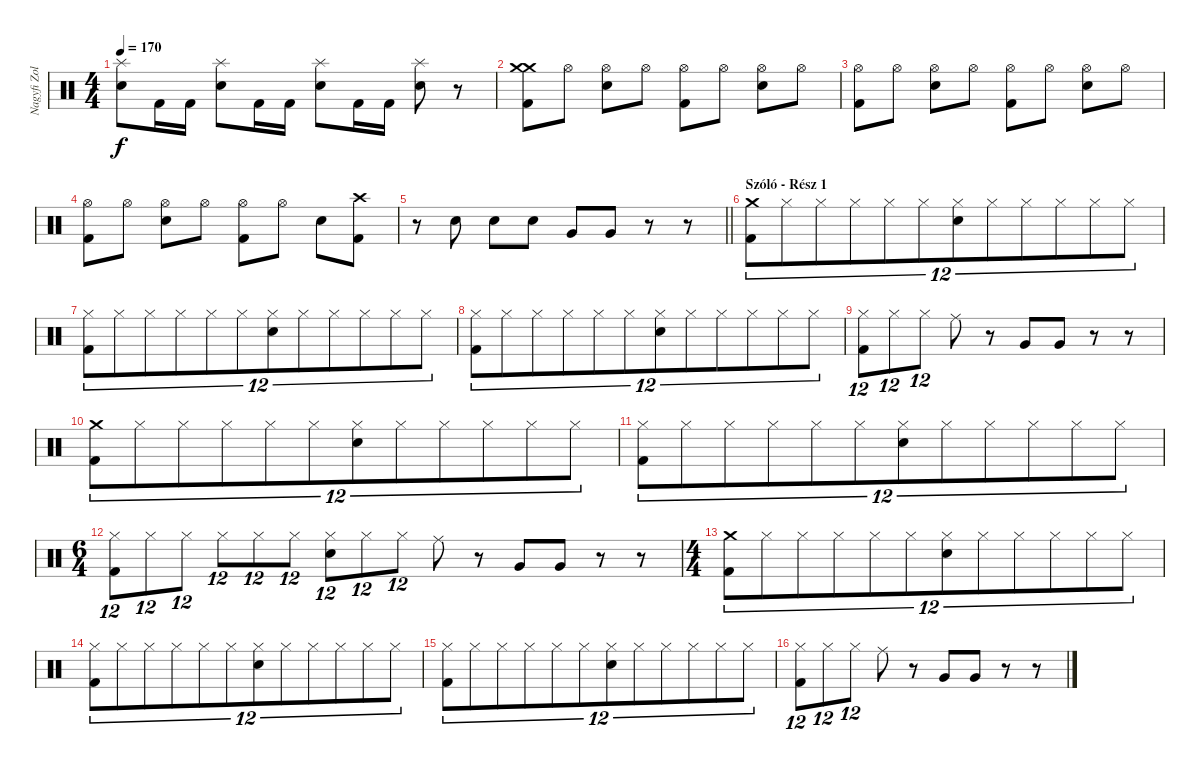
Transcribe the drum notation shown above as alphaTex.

\track ("Nagyfi Zoltán - Dob" "Nagyfi Zol") {instrument percussion}
\staff {score}
\articulation defaults
\ts (4 4)
\tempo 170
\clef neutral
\ks c
("Splash (hit)" "Electric Snare (hit)").8{dy f} "Kick (hit) 2".16 "Kick (hit) 2".16 ("Splash (hit)" "Electric Snare (hit)").8 "Kick (hit) 2".16 "Kick (hit) 2".16 ("Splash (hit)" "Electric Snare (hit)").8 "Kick (hit) 2".16 "Kick (hit) 2".16 ("Splash (hit)" "Electric Snare (hit)").8 r.8 |
("Crash medium (hit)" "Crash medium (hit)" "Kick (hit) 2").8 "Hi-Hat (open)".8 ("Hi-Hat (open)" "Electric Snare (hit)").8 "Hi-Hat (open)".8 ("Hi-Hat (open)" "Kick (hit) 2").8 "Hi-Hat (open)".8 ("Hi-Hat (open)" "Electric Snare (hit)").8 "Hi-Hat (open)".8 |
("Hi-Hat (open)" "Kick (hit) 2").8 "Hi-Hat (open)".8 ("Hi-Hat (open)" "Electric Snare (hit)").8 "Hi-Hat (open)".8 ("Hi-Hat (open)" "Kick (hit) 2").8 "Hi-Hat (open)".8 ("Hi-Hat (open)" "Electric Snare (hit)").8 "Hi-Hat (open)".8 |
("Hi-Hat (open)" "Kick (hit) 2").8 "Hi-Hat (open)".8 ("Hi-Hat (open)" "Electric Snare (hit)").8 "Hi-Hat (open)".8 ("Hi-Hat (open)" "Kick (hit) 2").8 "Hi-Hat (open)".8 "Electric Snare (hit)".8 ("Crash high (hit)" "Kick (hit) 2").8 |
\barLineRight lightlight
r.8 "Electric Snare (hit)".8 "Electric Snare (hit)".8 "Electric Snare (hit)".8 "Very Low Tom (hit)".8 "Very Low Tom (hit)".8 r.8 r.8 |
\section ("" "Szóló - Rész 1")
("Crash medium (hit)" "Kick (hit) 2").8{tu (12 8)} "Hi-Hat (closed)".8{tu (12 8)} "Hi-Hat (closed)".8{tu (12 8)} "Hi-Hat (closed)".8{tu (12 8)} "Hi-Hat (closed)".8{tu (12 8)} "Hi-Hat (closed)".8{tu (12 8)} ("Hi-Hat (closed)" "Electric Snare (hit)").8{tu (12 8)} "Hi-Hat (closed)".8{tu (12 8)} "Hi-Hat (closed)".8{tu (12 8)} "Hi-Hat (closed)".8{tu (12 8)} "Hi-Hat (closed)".8{tu (12 8)} "Hi-Hat (closed)".8{tu (12 8)} |
("Hi-Hat (closed)" "Kick (hit) 2").8{tu (12 8)} "Hi-Hat (closed)".8{tu (12 8)} "Hi-Hat (closed)".8{tu (12 8)} "Hi-Hat (closed)".8{tu (12 8)} "Hi-Hat (closed)".8{tu (12 8)} "Hi-Hat (closed)".8{tu (12 8)} ("Hi-Hat (closed)" "Electric Snare (hit)").8{tu (12 8)} "Hi-Hat (closed)".8{tu (12 8)} "Hi-Hat (closed)".8{tu (12 8)} "Hi-Hat (closed)".8{tu (12 8)} "Hi-Hat (closed)".8{tu (12 8)} "Hi-Hat (closed)".8{tu (12 8)} |
("Hi-Hat (closed)" "Kick (hit) 2").8{tu (12 8)} "Hi-Hat (closed)".8{tu (12 8)} "Hi-Hat (closed)".8{tu (12 8)} "Hi-Hat (closed)".8{tu (12 8)} "Hi-Hat (closed)".8{tu (12 8)} "Hi-Hat (closed)".8{tu (12 8)} ("Hi-Hat (closed)" "Electric Snare (hit)").8{tu (12 8)} "Hi-Hat (closed)".8{tu (12 8)} "Hi-Hat (closed)".8{tu (12 8)} "Hi-Hat (closed)".8{tu (12 8)} "Hi-Hat (closed)".8{tu (12 8)} "Hi-Hat (closed)".8{tu (12 8)} |
("Hi-Hat (closed)" "Kick (hit) 2").8{tu (12 8)} "Hi-Hat (closed)".8{tu (12 8)} "Hi-Hat (closed)".8{tu (12 8)} "Ride (middle)".8 r.8 "Very Low Tom (hit)".8 "Very Low Tom (hit)".8 r.8 r.8 |
("Crash medium (hit)" "Kick (hit) 2").8{tu (12 8)} "Hi-Hat (closed)".8{tu (12 8)} "Hi-Hat (closed)".8{tu (12 8)} "Hi-Hat (closed)".8{tu (12 8)} "Hi-Hat (closed)".8{tu (12 8)} "Hi-Hat (closed)".8{tu (12 8)} ("Hi-Hat (closed)" "Electric Snare (hit)").8{tu (12 8)} "Hi-Hat (closed)".8{tu (12 8)} "Hi-Hat (closed)".8{tu (12 8)} "Hi-Hat (closed)".8{tu (12 8)} "Hi-Hat (closed)".8{tu (12 8)} "Hi-Hat (closed)".8{tu (12 8)} |
("Hi-Hat (closed)" "Kick (hit) 2").8{tu (12 8)} "Hi-Hat (closed)".8{tu (12 8)} "Hi-Hat (closed)".8{tu (12 8)} "Hi-Hat (closed)".8{tu (12 8)} "Hi-Hat (closed)".8{tu (12 8)} "Hi-Hat (closed)".8{tu (12 8)} ("Hi-Hat (closed)" "Electric Snare (hit)").8{tu (12 8)} "Hi-Hat (closed)".8{tu (12 8)} "Hi-Hat (closed)".8{tu (12 8)} "Hi-Hat (closed)".8{tu (12 8)} "Hi-Hat (closed)".8{tu (12 8)} "Hi-Hat (closed)".8{tu (12 8)} |
\ts (6 4)
("Hi-Hat (closed)" "Kick (hit) 2").8{tu (12 8)} "Hi-Hat (closed)".8{tu (12 8)} "Hi-Hat (closed)".8{tu (12 8)} "Hi-Hat (closed)".8{tu (12 8)} "Hi-Hat (closed)".8{tu (12 8)} "Hi-Hat (closed)".8{tu (12 8)} ("Hi-Hat (closed)" "Electric Snare (hit)").8{tu (12 8)} "Hi-Hat (closed)".8{tu (12 8)} "Hi-Hat (closed)".8{tu (12 8)} "Ride (middle)".8 r.8 "Very Low Tom (hit)".8 "Very Low Tom (hit)".8 r.8 r.8 |
\ts (4 4)
("Crash medium (hit)" "Kick (hit) 2").8{tu (12 8)} "Hi-Hat (closed)".8{tu (12 8)} "Hi-Hat (closed)".8{tu (12 8)} "Hi-Hat (closed)".8{tu (12 8)} "Hi-Hat (closed)".8{tu (12 8)} "Hi-Hat (closed)".8{tu (12 8)} ("Hi-Hat (closed)" "Electric Snare (hit)").8{tu (12 8)} "Hi-Hat (closed)".8{tu (12 8)} "Hi-Hat (closed)".8{tu (12 8)} "Hi-Hat (closed)".8{tu (12 8)} "Hi-Hat (closed)".8{tu (12 8)} "Hi-Hat (closed)".8{tu (12 8)} |
("Hi-Hat (closed)" "Kick (hit) 2").8{tu (12 8)} "Hi-Hat (closed)".8{tu (12 8)} "Hi-Hat (closed)".8{tu (12 8)} "Hi-Hat (closed)".8{tu (12 8)} "Hi-Hat (closed)".8{tu (12 8)} "Hi-Hat (closed)".8{tu (12 8)} ("Hi-Hat (closed)" "Electric Snare (hit)").8{tu (12 8)} "Hi-Hat (closed)".8{tu (12 8)} "Hi-Hat (closed)".8{tu (12 8)} "Hi-Hat (closed)".8{tu (12 8)} "Hi-Hat (closed)".8{tu (12 8)} "Hi-Hat (closed)".8{tu (12 8)} |
("Hi-Hat (closed)" "Kick (hit) 2").8{tu (12 8)} "Hi-Hat (closed)".8{tu (12 8)} "Hi-Hat (closed)".8{tu (12 8)} "Hi-Hat (closed)".8{tu (12 8)} "Hi-Hat (closed)".8{tu (12 8)} "Hi-Hat (closed)".8{tu (12 8)} ("Hi-Hat (closed)" "Electric Snare (hit)").8{tu (12 8)} "Hi-Hat (closed)".8{tu (12 8)} "Hi-Hat (closed)".8{tu (12 8)} "Hi-Hat (closed)".8{tu (12 8)} "Hi-Hat (closed)".8{tu (12 8)} "Hi-Hat (closed)".8{tu (12 8)} |
("Hi-Hat (closed)" "Kick (hit) 2").8{tu (12 8)} "Hi-Hat (closed)".8{tu (12 8)} "Hi-Hat (closed)".8{tu (12 8)} "Ride (middle)".8 r.8 "Very Low Tom (hit)".8 "Very Low Tom (hit)".8 r.8 r.8
